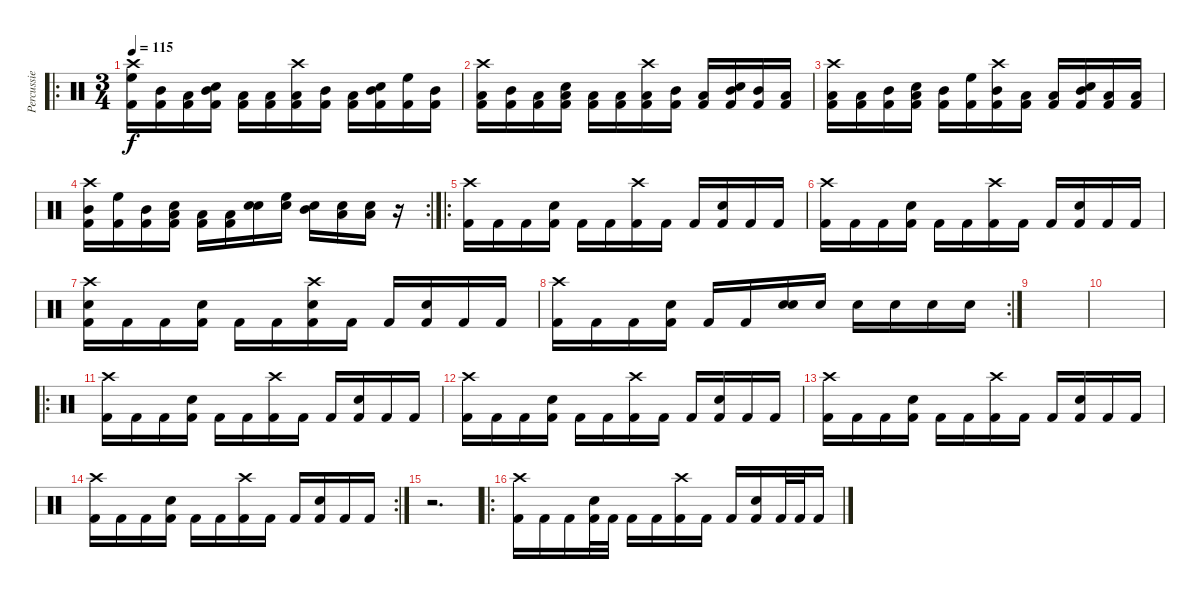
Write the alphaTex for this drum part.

\track ("Percussie" "Percussie") {instrument percussion}
\staff {score}
\articulation defaults
\ro
\ts (3 4)
\tempo 115
\clef neutral
\ks c
("Crash high (hit)" "High Floor Tom (hit)" "Kick (hit) 2").16{dy f} ("Mid Tom (hit)" "Kick (hit) 2").16 ("Low Tom (hit)" "Kick (hit) 2").16 ("Snare (hit) 2" "Mid Tom (hit)" "Kick (hit) 2").16 ("Low Tom (hit)" "Kick (hit) 2").16 ("Low Floor Tom (hit)" "Kick (hit) 2").16 ("Crash high (hit)" "Low Tom (hit)" "Kick (hit) 2").16 ("Mid Tom (hit)" "Kick (hit) 2").16 ("Low Tom (hit)" "Kick (hit) 2").16 ("Snare (hit) 2" "Mid Tom (hit)" "Kick (hit) 2").16 ("High Floor Tom (hit)" "Kick (hit) 2").16 ("Mid Tom (hit)" "Kick (hit) 2").16 |
("Crash high (hit)" "Low Tom (hit)" "Kick (hit) 2").16 ("Mid Tom (hit)" "Kick (hit) 2").16 ("Low Tom (hit)" "Kick (hit) 2").16 ("Snare (hit) 2" "Low Floor Tom (hit)" "Kick (hit) 2").16 ("Low Tom (hit)" "Kick (hit) 2").16 ("Low Floor Tom (hit)" "Kick (hit) 2").16 ("Crash high (hit)" "Low Tom (hit)" "Kick (hit) 2").16 ("Mid Tom (hit)" "Kick (hit) 2").16 ("Low Tom (hit)" "Kick (hit) 2").16 ("Snare (hit) 2" "Mid Tom (hit)" "Kick (hit) 2").16 ("Mid Tom (hit)" "Kick (hit) 2").16 ("Low Tom (hit)" "Kick (hit) 2").16 |
("Crash high (hit)" "Low Floor Tom (hit)" "Kick (hit) 2").16 ("Low Tom (hit)" "Kick (hit) 2").16 ("Mid Tom (hit)" "Kick (hit) 2").16 ("Snare (hit) 2" "Low Tom (hit)" "Kick (hit) 2").16 ("Mid Tom (hit)" "Kick (hit) 2").16 ("High Floor Tom (hit)" "Kick (hit) 2").16 ("Crash high (hit)" "Mid Tom (hit)" "Kick (hit) 2").16 ("Low Tom (hit)" "Kick (hit) 2").16 ("Low Tom (hit)" "Kick (hit) 2").16 ("Snare (hit) 2" "Mid Tom (hit)" "Kick (hit) 2").16 ("Low Floor Tom (hit)" "Kick (hit) 2").16 ("Low Tom (hit)" "Kick (hit) 2").16 |
\rc 2
("Crash high (hit)" "Mid Tom (hit)" "Kick (hit) 2").16 ("High Floor Tom (hit)" "Kick (hit) 2").16 ("Mid Tom (hit)" "Kick (hit) 2").16 ("Snare (hit) 2" "Low Tom (hit)" "Kick (hit) 2").16 ("Low Floor Tom (hit)" "Kick (hit) 2").16 ("Low Tom (hit)" "Kick (hit) 2").16 ("Snare (hit) 2" "Snare (hit) 2").16{bd 480} ("High Floor Tom (hit)" "Snare (hit) 2").16 ("Mid Tom (hit)" "Snare (hit) 2").16 ("Low Tom (hit)" "Snare (hit) 2").16 ("Low Floor Tom (hit)" "Snare (hit) 2").16 r.16 |
\ro
("Crash high (hit)" "Kick (hit) 2").16 "Kick (hit) 2".16 "Kick (hit) 2".16 ("Snare (hit) 2" "Kick (hit) 2").16 "Kick (hit) 2".16 "Kick (hit) 2".16 ("Crash high (hit)" "Kick (hit) 2").16 "Kick (hit) 2".16 "Kick (hit) 2".16 ("Snare (hit) 2" "Kick (hit) 2").16 "Kick (hit) 2".16 "Kick (hit) 2".16 |
("Crash high (hit)" "Kick (hit) 2").16 "Kick (hit) 2".16 "Kick (hit) 2".16 ("Snare (hit) 2" "Kick (hit) 2").16 "Kick (hit) 2".16 "Kick (hit) 2".16 ("Crash high (hit)" "Kick (hit) 2").16 "Kick (hit) 2".16 "Kick (hit) 2".16 ("Snare (hit) 2" "Kick (hit) 2").16 "Kick (hit) 2".16 "Kick (hit) 2".16 |
("Crash high (hit)" "Snare (hit) 2" "Kick (hit) 2").16 "Kick (hit) 2".16 "Kick (hit) 2".16 ("Snare (hit) 2" "Kick (hit) 2").16 "Kick (hit) 2".16 "Kick (hit) 2".16 ("Crash high (hit)" "Snare (hit) 2" "Kick (hit) 2").16 "Kick (hit) 2".16 "Kick (hit) 2".16 ("Snare (hit) 2" "Kick (hit) 2").16 "Kick (hit) 2".16 "Kick (hit) 2".16 |
\rc 2
("Crash high (hit)" "Kick (hit) 2").16 "Kick (hit) 2".16 "Kick (hit) 2".16 ("Snare (hit) 2" "Kick (hit) 2").16 "Kick (hit) 2".16 "Kick (hit) 2".16 ("Snare (hit) 2" "Snare (hit) 2").16{bd 480} "Snare (hit) 2".16 "Snare (hit) 2".16 "Snare (hit) 2".16 "Snare (hit) 2".16 "Snare (hit) 2".16 |
|
|
\ro
("Crash high (hit)" "Kick (hit) 2").16 "Kick (hit) 2".16 "Kick (hit) 2".16 ("Snare (hit) 2" "Kick (hit) 2").16 "Kick (hit) 2".16 "Kick (hit) 2".16 ("Crash high (hit)" "Kick (hit) 2").16 "Kick (hit) 2".16 "Kick (hit) 2".16 ("Snare (hit) 2" "Kick (hit) 2").16 "Kick (hit) 2".16 "Kick (hit) 2".16 |
("Crash high (hit)" "Kick (hit) 2").16 "Kick (hit) 2".16 "Kick (hit) 2".16 ("Snare (hit) 2" "Kick (hit) 2").16 "Kick (hit) 2".16 "Kick (hit) 2".16 ("Crash high (hit)" "Kick (hit) 2").16 "Kick (hit) 2".16 "Kick (hit) 2".16 ("Snare (hit) 2" "Kick (hit) 2").16 "Kick (hit) 2".16 "Kick (hit) 2".16 |
("Crash high (hit)" "Kick (hit) 2").16 "Kick (hit) 2".16 "Kick (hit) 2".16 ("Snare (hit) 2" "Kick (hit) 2").16 "Kick (hit) 2".16 "Kick (hit) 2".16 ("Crash high (hit)" "Kick (hit) 2").16 "Kick (hit) 2".16 "Kick (hit) 2".16 ("Snare (hit) 2" "Kick (hit) 2").16 "Kick (hit) 2".16 "Kick (hit) 2".16 |
\rc 2
("Crash high (hit)" "Kick (hit) 2").16 "Kick (hit) 2".16 "Kick (hit) 2".16 ("Snare (hit) 2" "Kick (hit) 2").16 "Kick (hit) 2".16 "Kick (hit) 2".16 ("Crash high (hit)" "Kick (hit) 2").16 "Kick (hit) 2".16 "Kick (hit) 2".16 ("Snare (hit) 2" "Kick (hit) 2").16 "Kick (hit) 2".16 "Kick (hit) 2".16 |
r.2{d} |
\ro
("Crash high (hit)" "Kick (hit) 2").16 "Kick (hit) 2".16 "Kick (hit) 2".16 ("Snare (hit) 2" "Kick (hit) 2").32 "Kick (hit) 2".32 "Kick (hit) 2".16 "Kick (hit) 2".16 ("Crash high (hit)" "Kick (hit) 2").16 "Kick (hit) 2".16 "Kick (hit) 2".16 ("Snare (hit) 2" "Kick (hit) 2").16 "Kick (hit) 2".32 "Kick (hit) 2".32 "Kick (hit) 2".16
